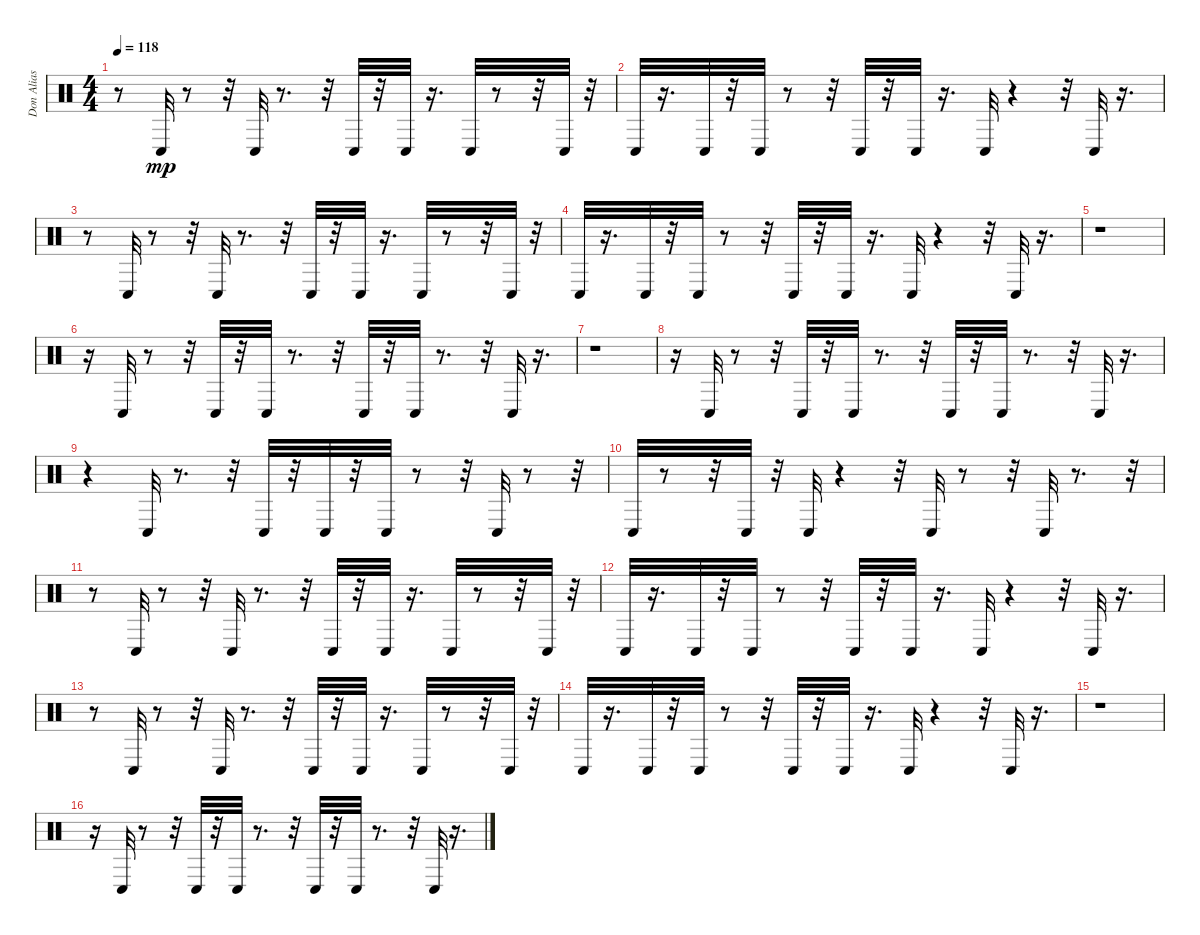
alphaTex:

\track ("Don Alias" "Don Alias") {instrument percussion}
\staff {score}
\articulation defaults
\ts (4 4)
\tempo 118
\clef neutral
\ks c
r.8{dy mp} "Conga low (hit)".32 r.8 r.32 "Conga low (hit)".32 r.8{d} r.32 "Conga low (hit)".32 r.32 "Conga low (hit)".32 r.16{d} "Conga low (hit)".32 r.8 r.32 "Conga low (hit)".32 r.32 |
"Conga low (hit)".32 r.16{d} "Conga low (hit)".32 r.32 "Conga low (hit)".32 r.8 r.32 "Conga low (hit)".32 r.32 "Conga low (hit)".32 r.16{d} "Conga low (hit)".32 r.4 r.32 "Conga low (hit)".32 r.16{d} |
r.8 "Conga low (hit)".32 r.8 r.32 "Conga low (hit)".32 r.8{d} r.32 "Conga low (hit)".32 r.32 "Conga low (hit)".32 r.16{d} "Conga low (hit)".32 r.8 r.32 "Conga low (hit)".32 r.32 |
"Conga low (hit)".32 r.16{d} "Conga low (hit)".32 r.32 "Conga low (hit)".32 r.8 r.32 "Conga low (hit)".32 r.32 "Conga low (hit)".32 r.16{d} "Conga low (hit)".32 r.4 r.32 "Conga low (hit)".32 r.16{d} |
r.1 |
r.16 "Conga low (hit)".32 r.8 r.32 "Conga low (hit)".32 r.32 "Conga low (hit)".32 r.8{d} r.32 "Conga low (hit)".32 r.32 "Conga low (hit)".32 r.8{d} r.32 "Conga low (hit)".32 r.16{d} |
r.1 |
r.16 "Conga low (hit)".32 r.8 r.32 "Conga low (hit)".32 r.32 "Conga low (hit)".32 r.8{d} r.32 "Conga low (hit)".32 r.32 "Conga low (hit)".32 r.8{d} r.32 "Conga low (hit)".32 r.16{d} |
r.4 "Conga low (hit)".32 r.8{d} r.32 "Conga low (hit)".32 r.32 "Conga low (hit)".32 r.32 "Conga low (hit)".32 r.8 r.32 "Conga low (hit)".32 r.8 r.32 |
"Conga low (hit)".32 r.8 r.32 "Conga low (hit)".32 r.32 "Conga low (hit)".32 r.4 r.32 "Conga low (hit)".32 r.8 r.32 "Conga low (hit)".32 r.8{d} r.32 |
r.8 "Conga low (hit)".32 r.8 r.32 "Conga low (hit)".32 r.8{d} r.32 "Conga low (hit)".32 r.32 "Conga low (hit)".32 r.16{d} "Conga low (hit)".32 r.8 r.32 "Conga low (hit)".32 r.32 |
"Conga low (hit)".32 r.16{d} "Conga low (hit)".32 r.32 "Conga low (hit)".32 r.8 r.32 "Conga low (hit)".32 r.32 "Conga low (hit)".32 r.16{d} "Conga low (hit)".32 r.4 r.32 "Conga low (hit)".32 r.16{d} |
r.8 "Conga low (hit)".32 r.8 r.32 "Conga low (hit)".32 r.8{d} r.32 "Conga low (hit)".32 r.32 "Conga low (hit)".32 r.16{d} "Conga low (hit)".32 r.8 r.32 "Conga low (hit)".32 r.32 |
"Conga low (hit)".32 r.16{d} "Conga low (hit)".32 r.32 "Conga low (hit)".32 r.8 r.32 "Conga low (hit)".32 r.32 "Conga low (hit)".32 r.16{d} "Conga low (hit)".32 r.4 r.32 "Conga low (hit)".32 r.16{d} |
r.1 |
r.16 "Conga low (hit)".32 r.8 r.32 "Conga low (hit)".32 r.32 "Conga low (hit)".32 r.8{d} r.32 "Conga low (hit)".32 r.32 "Conga low (hit)".32 r.8{d} r.32 "Conga low (hit)".32 r.16{d}
